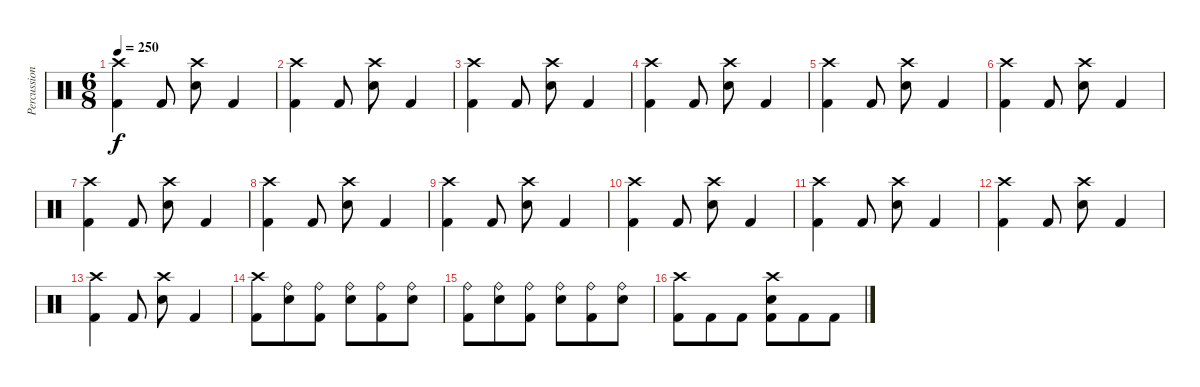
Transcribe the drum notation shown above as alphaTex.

\track ("Percussion" "Percussion") {instrument percussion}
\staff {score}
\articulation defaults
\ts (6 8)
\tempo 250
\clef neutral
\ks c
("Crash high (hit)" "Kick (hit) 2").4{dy f} "Kick (hit) 2".8 ("Crash high (hit)" "Electric Snare (hit)").8 "Kick (hit) 2".4 |
("Crash high (hit)" "Kick (hit) 2").4 "Kick (hit) 2".8 ("Crash high (hit)" "Electric Snare (hit)").8 "Kick (hit) 2".4 |
("Crash high (hit)" "Kick (hit) 2").4 "Kick (hit) 2".8 ("Crash high (hit)" "Electric Snare (hit)").8 "Kick (hit) 2".4 |
("Crash high (hit)" "Kick (hit) 2").4 "Kick (hit) 2".8 ("Crash high (hit)" "Electric Snare (hit)").8 "Kick (hit) 2".4 |
("Crash high (hit)" "Kick (hit) 2").4 "Kick (hit) 2".8 ("Crash high (hit)" "Electric Snare (hit)").8 "Kick (hit) 2".4 |
("Crash high (hit)" "Kick (hit) 2").4 "Kick (hit) 2".8 ("Crash high (hit)" "Electric Snare (hit)").8 "Kick (hit) 2".4 |
("Crash high (hit)" "Kick (hit) 2").4 "Kick (hit) 2".8 ("Crash high (hit)" "Electric Snare (hit)").8 "Kick (hit) 2".4 |
("Crash high (hit)" "Kick (hit) 2").4 "Kick (hit) 2".8 ("Crash high (hit)" "Electric Snare (hit)").8 "Kick (hit) 2".4 |
("Crash high (hit)" "Kick (hit) 2").4 "Kick (hit) 2".8 ("Crash high (hit)" "Electric Snare (hit)").8 "Kick (hit) 2".4 |
("Crash high (hit)" "Kick (hit) 2").4 "Kick (hit) 2".8 ("Crash high (hit)" "Electric Snare (hit)").8 "Kick (hit) 2".4 |
("Crash high (hit)" "Kick (hit) 2").4 "Kick (hit) 2".8 ("Crash high (hit)" "Electric Snare (hit)").8 "Kick (hit) 2".4 |
("Crash high (hit)" "Kick (hit) 2").4 "Kick (hit) 2".8 ("Crash high (hit)" "Electric Snare (hit)").8 "Kick (hit) 2".4 |
("Crash high (hit)" "Kick (hit) 2").4 "Kick (hit) 2".8 ("Crash high (hit)" "Electric Snare (hit)").8 "Kick (hit) 2".4 |
("Crash high (hit)" "Kick (hit) 2").8 ("Ride (bell)" "Electric Snare (hit)").8 ("Ride (bell)" "Kick (hit) 2").8 ("Ride (bell)" "Electric Snare (hit)").8 ("Ride (bell)" "Kick (hit) 2").8 ("Ride (bell)" "Electric Snare (hit)").8 |
("Ride (bell)" "Kick (hit) 2").8 ("Ride (bell)" "Electric Snare (hit)").8 ("Ride (bell)" "Kick (hit) 2").8 ("Ride (bell)" "Electric Snare (hit)").8 ("Ride (bell)" "Kick (hit) 2").8 ("Ride (bell)" "Electric Snare (hit)").8 |
("Crash high (hit)" "Kick (hit) 2").8 "Kick (hit) 2".8 "Kick (hit) 2".8 ("Crash high (hit)" "Electric Snare (hit)" "Kick (hit) 2").8 "Kick (hit) 2".8 "Kick (hit) 2".8
